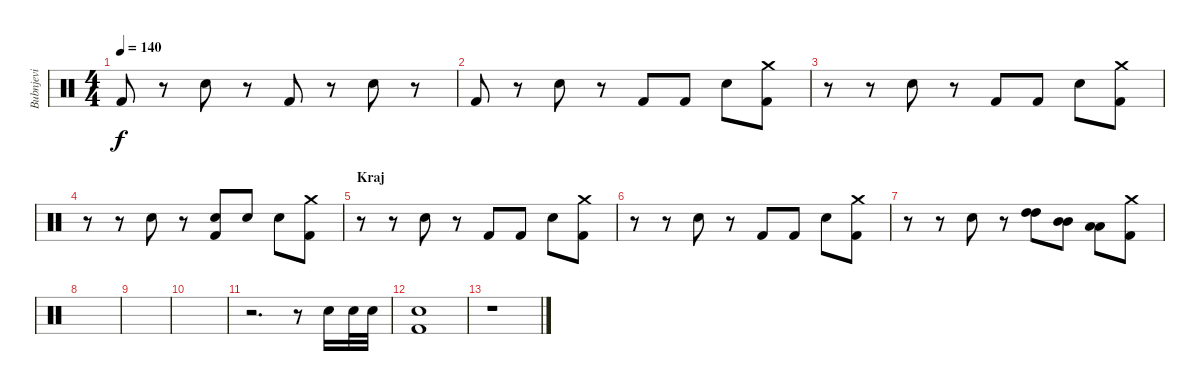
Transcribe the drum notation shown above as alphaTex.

\track ("Bubnjevi" "Bubnjevi") {instrument percussion}
\staff {score}
\articulation defaults
\ts (4 4)
\tempo 140
\clef neutral
\ks c "Kick (hit) 2".8{dy f}
r.8 "Snare (hit) 2".8 r.8 "Kick (hit) 2".8 r.8 "Snare (hit) 2".8 r.8 |
"Kick (hit) 2".8 r.8 "Snare (hit) 2".8 r.8 "Kick (hit) 2".8 "Kick (hit) 2".8 "Snare (hit) 2".8 ("Crash medium (hit)" "Kick (hit) 2").8 |
r.8 r.8 "Snare (hit) 2".8 r.8 "Kick (hit) 2".8 "Kick (hit) 2".8 "Snare (hit) 2".8 ("Crash medium (hit)" "Kick (hit) 2").8 |
r.8 r.8 "Snare (hit) 2".8 r.8 ("Snare (hit) 2" "Kick (hit) 2").8 "Snare (hit) 2".8 "Snare (hit) 2".8 ("Crash medium (hit)" "Kick (hit) 2").8 |
\section ("" "Kraj")
r.8 r.8 "Snare (hit) 2".8 r.8 "Kick (hit) 2".8 "Kick (hit) 2".8 "Snare (hit) 2".8 ("Crash medium (hit)" "Kick (hit) 2").8 |
r.8 r.8 "Snare (hit) 2".8 r.8 "Kick (hit) 2".8 "Kick (hit) 2".8 "Snare (hit) 2".8 ("Crash medium (hit)" "Kick (hit) 2").8 |
r.8 r.8 "Snare (hit) 2".8 r.8 ("High Tom (hit)" "High Tom (hit)").8 ("Mid Tom (hit)" "Mid Tom (hit)").8 ("Low Tom (hit)" "Low Tom (hit)").8 ("Crash medium (hit)" "Kick (hit) 2").8 |
|
|
|
r.2{d} r.8 "Snare (hit) 2".16 "Snare (hit) 2".32 "Snare (hit) 2".32 |
("Snare (hit) 2" "Kick (hit) 2").1 |
r.1
